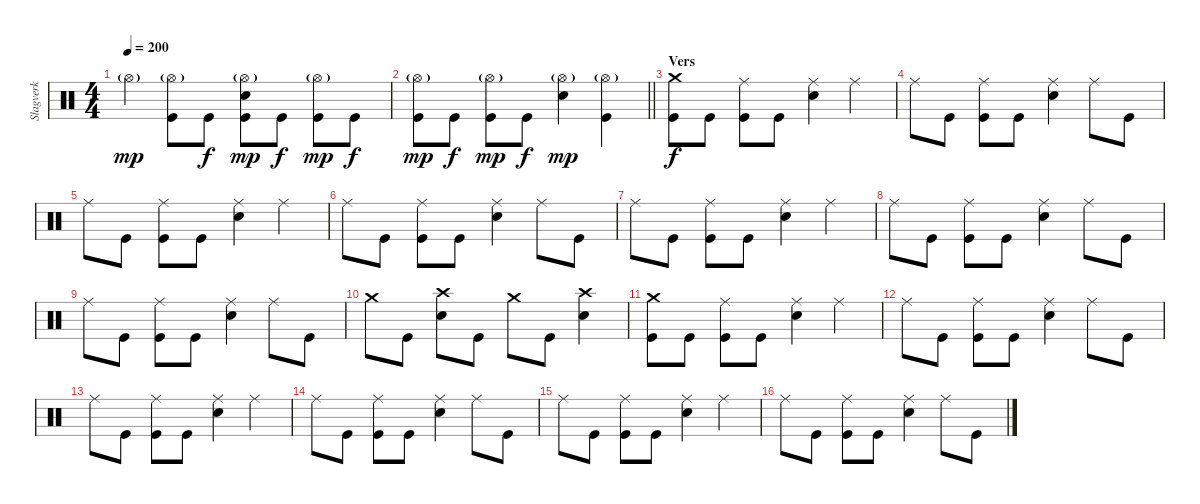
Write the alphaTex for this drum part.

\track ("Slagverk" "Slagverk") {instrument percussion}
\staff {score}
\articulation defaults
\ts (4 4)
\tempo 200
\clef neutral
\ks c "Hi-Hat (open)"{g}.4{dy mp}
("Hi-Hat (open)"{g} "Kick (hit)").8 "Kick (hit)".8{dy f} ("Hi-Hat (open)"{g} "Snare (hit) 2" "Kick (hit)").8{dy mp} "Kick (hit)".8{dy f} ("Hi-Hat (open)"{g} "Kick (hit)").8{dy mp} "Kick (hit)".8{dy f} |
\barLineRight lightlight
("Hi-Hat (open)"{g} "Kick (hit)").8{dy mp} "Kick (hit)".8{dy f} ("Hi-Hat (open)"{g} "Kick (hit)").8{dy mp} "Kick (hit)".8{dy f} ("Hi-Hat (open)"{g} "Snare (hit) 2").4{dy mp} ("Hi-Hat (open)"{g} "Kick (hit)").4 |
\section ("" "Vers")
("Crash medium (hit)" "Kick (hit)").8{dy f} "Kick (hit)".8 ("Ride (middle)" "Kick (hit)").8 "Kick (hit)".8 ("Ride (middle)" "Snare (hit) 2").4 "Ride (middle)".4 |
"Ride (middle)".8 "Kick (hit)".8 ("Ride (middle)" "Kick (hit)").8 "Kick (hit)".8 ("Ride (middle)" "Snare (hit) 2").4 "Ride (middle)".8 "Kick (hit)".8 |
"Ride (middle)".8 "Kick (hit)".8 ("Ride (middle)" "Kick (hit)").8 "Kick (hit)".8 ("Ride (middle)" "Snare (hit) 2").4 "Ride (middle)".4 |
"Ride (middle)".8 "Kick (hit)".8 ("Ride (middle)" "Kick (hit)").8 "Kick (hit)".8 ("Ride (middle)" "Snare (hit) 2").4 "Ride (middle)".8 "Kick (hit)".8 |
"Ride (middle)".8 "Kick (hit)".8 ("Ride (middle)" "Kick (hit)").8 "Kick (hit)".8 ("Ride (middle)" "Snare (hit) 2").4 "Ride (middle)".4 |
"Ride (middle)".8 "Kick (hit)".8 ("Ride (middle)" "Kick (hit)").8 "Kick (hit)".8 ("Ride (middle)" "Snare (hit) 2").4 "Ride (middle)".8 "Kick (hit)".8 |
"Ride (middle)".8 "Kick (hit)".8 ("Ride (middle)" "Kick (hit)").8 "Kick (hit)".8 ("Ride (middle)" "Snare (hit) 2").4 "Ride (middle)".8 "Kick (hit)".8 |
"Crash medium (hit)".8 "Kick (hit)".8 ("Crash high (hit)" "Snare (hit) 2").8 "Kick (hit)".8 "Crash medium (hit)".8 "Kick (hit)".8 ("Crash high (hit)" "Snare (hit) 2").4 |
("Crash medium (hit)" "Kick (hit)").8 "Kick (hit)".8 ("Ride (middle)" "Kick (hit)").8 "Kick (hit)".8 ("Ride (middle)" "Snare (hit) 2").4 "Ride (middle)".4 |
"Ride (middle)".8 "Kick (hit)".8 ("Ride (middle)" "Kick (hit)").8 "Kick (hit)".8 ("Ride (middle)" "Snare (hit) 2").4 "Ride (middle)".8 "Kick (hit)".8 |
"Ride (middle)".8 "Kick (hit)".8 ("Ride (middle)" "Kick (hit)").8 "Kick (hit)".8 ("Ride (middle)" "Snare (hit) 2").4 "Ride (middle)".4 |
"Ride (middle)".8 "Kick (hit)".8 ("Ride (middle)" "Kick (hit)").8 "Kick (hit)".8 ("Ride (middle)" "Snare (hit) 2").4 "Ride (middle)".8 "Kick (hit)".8 |
"Ride (middle)".8 "Kick (hit)".8 ("Ride (middle)" "Kick (hit)").8 "Kick (hit)".8 ("Ride (middle)" "Snare (hit) 2").4 "Ride (middle)".4 |
"Ride (middle)".8 "Kick (hit)".8 ("Ride (middle)" "Kick (hit)").8 "Kick (hit)".8 ("Ride (middle)" "Snare (hit) 2").4 "Ride (middle)".8 "Kick (hit)".8
